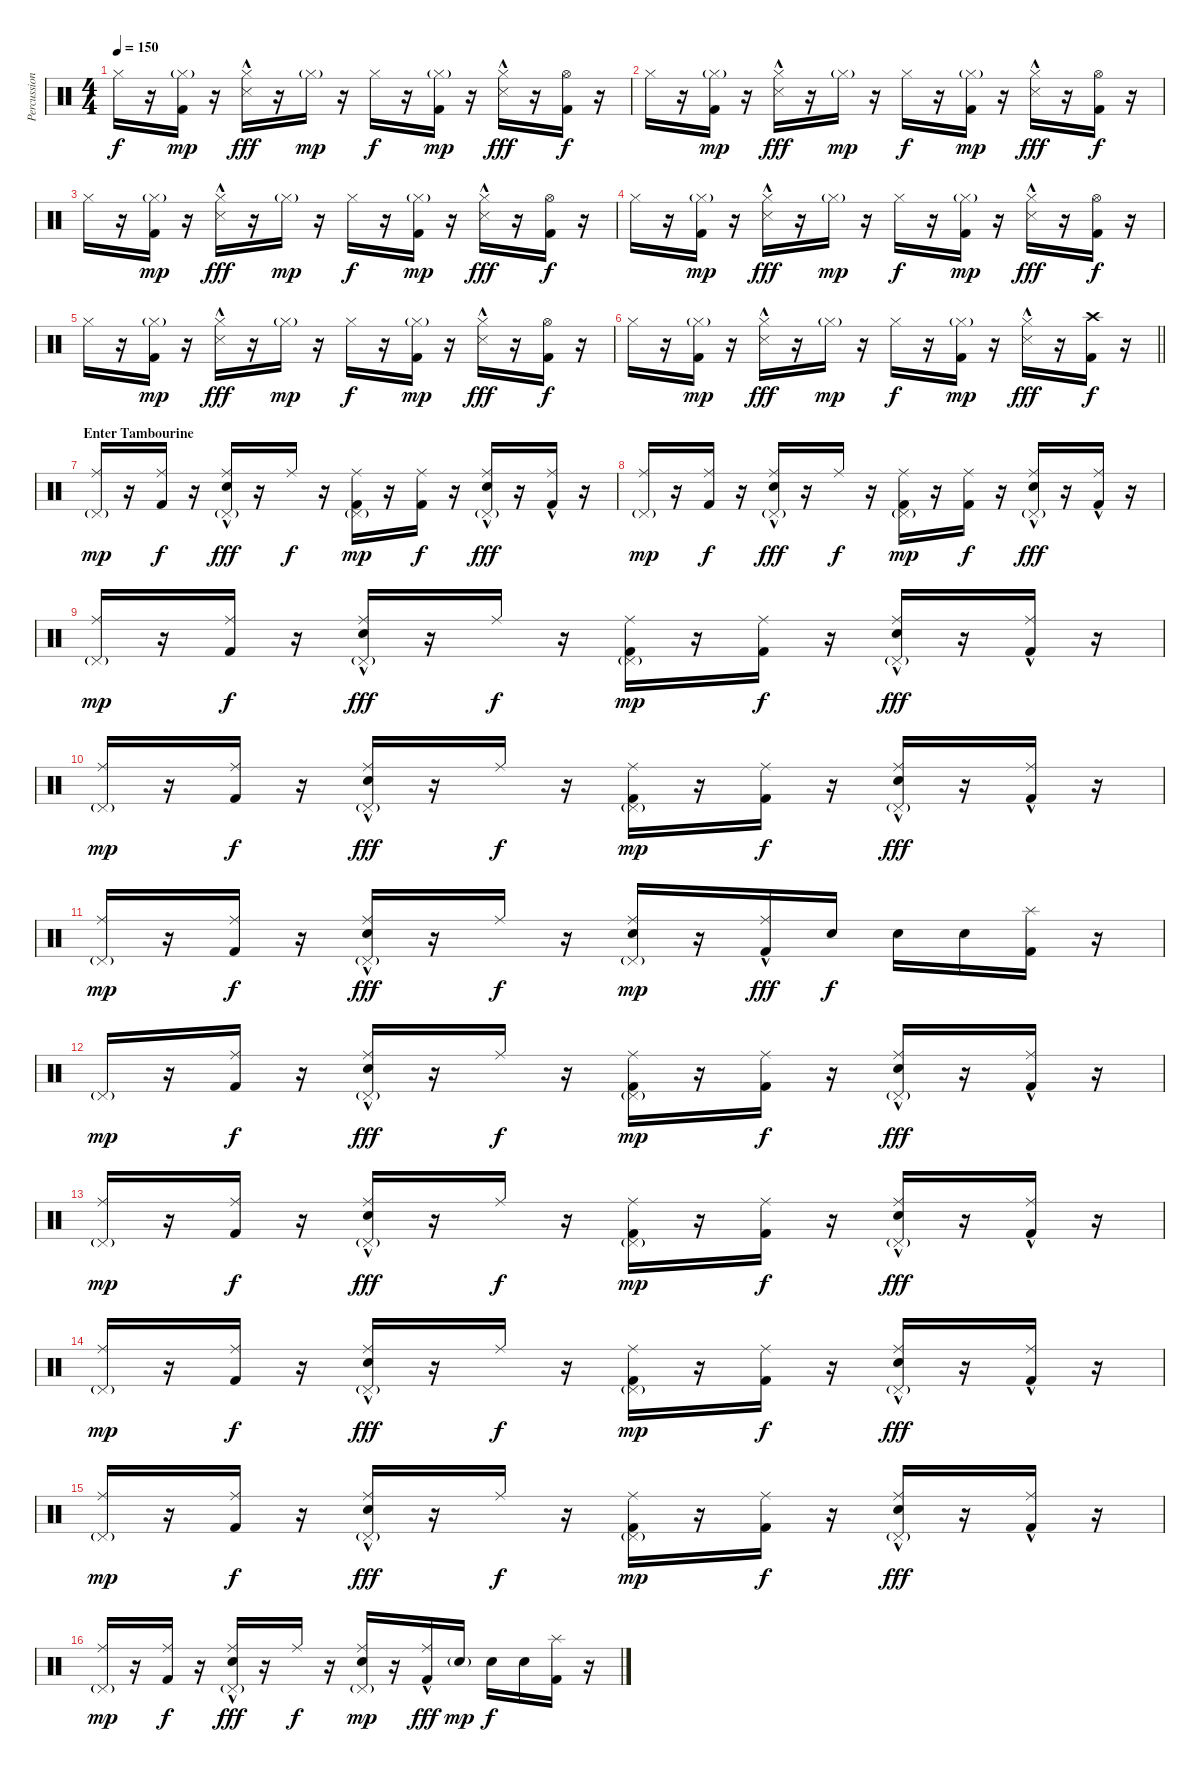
\track ("Percussion" "Percussion") {instrument percussion}
\staff {score}
\articulation defaults
\ts (4 4)
\tempo 150
\clef neutral
\ks c "Hi-Hat (closed)".16{dy f}
r.16 ("Hi-Hat (closed)"{g} "Kick (hit) 2").16{dy mp} r.16 ("Hi-Hat (closed)" "Snare (side stick) 3"{hac}).16{dy fff} r.16 "Hi-Hat (closed)"{g}.16{dy mp} r.16 "Hi-Hat (closed)".16{dy f} r.16 ("Hi-Hat (closed)"{g} "Kick (hit) 2").16{dy mp} r.16 ("Hi-Hat (closed)" "Snare (side stick) 3"{hac}).16{dy fff} r.16 ("Hi-Hat (open)" "Kick (hit) 2").16{dy f} r.16 |
"Hi-Hat (closed)".16 r.16 ("Hi-Hat (closed)"{g} "Kick (hit) 2").16{dy mp} r.16 ("Hi-Hat (closed)" "Snare (side stick) 3"{hac}).16{dy fff} r.16 "Hi-Hat (closed)"{g}.16{dy mp} r.16 "Hi-Hat (closed)".16{dy f} r.16 ("Hi-Hat (closed)"{g} "Kick (hit) 2").16{dy mp} r.16 ("Hi-Hat (closed)" "Snare (side stick) 3"{hac}).16{dy fff} r.16 ("Hi-Hat (open)" "Kick (hit) 2").16{dy f} r.16 |
"Hi-Hat (closed)".16 r.16 ("Hi-Hat (closed)"{g} "Kick (hit) 2").16{dy mp} r.16 ("Hi-Hat (closed)" "Snare (side stick) 3"{hac}).16{dy fff} r.16 "Hi-Hat (closed)"{g}.16{dy mp} r.16 "Hi-Hat (closed)".16{dy f} r.16 ("Hi-Hat (closed)"{g} "Kick (hit) 2").16{dy mp} r.16 ("Hi-Hat (closed)" "Snare (side stick) 3"{hac}).16{dy fff} r.16 ("Hi-Hat (open)" "Kick (hit) 2").16{dy f} r.16 |
"Hi-Hat (closed)".16 r.16 ("Hi-Hat (closed)"{g} "Kick (hit) 2").16{dy mp} r.16 ("Hi-Hat (closed)" "Snare (side stick) 3"{hac}).16{dy fff} r.16 "Hi-Hat (closed)"{g}.16{dy mp} r.16 "Hi-Hat (closed)".16{dy f} r.16 ("Hi-Hat (closed)"{g} "Kick (hit) 2").16{dy mp} r.16 ("Hi-Hat (closed)" "Snare (side stick) 3"{hac}).16{dy fff} r.16 ("Hi-Hat (open)" "Kick (hit) 2").16{dy f} r.16 |
"Hi-Hat (closed)".16 r.16 ("Hi-Hat (closed)"{g} "Kick (hit) 2").16{dy mp} r.16 ("Hi-Hat (closed)" "Snare (side stick) 3"{hac}).16{dy fff} r.16 "Hi-Hat (closed)"{g}.16{dy mp} r.16 "Hi-Hat (closed)".16{dy f} r.16 ("Hi-Hat (closed)"{g} "Kick (hit) 2").16{dy mp} r.16 ("Hi-Hat (closed)" "Snare (side stick) 3"{hac}).16{dy fff} r.16 ("Hi-Hat (open)" "Kick (hit) 2").16{dy f} r.16 |
\barLineRight lightlight "Hi-Hat (closed)".16
r.16 ("Hi-Hat (closed)"{g} "Kick (hit) 2").16{dy mp} r.16 ("Hi-Hat (closed)" "Snare (side stick) 3"{hac}).16{dy fff} r.16 "Hi-Hat (closed)"{g}.16{dy mp} r.16 "Hi-Hat (closed)".16{dy f} r.16 ("Hi-Hat (closed)"{g} "Kick (hit) 2").16{dy mp} r.16 ("Hi-Hat (closed)" "Snare (side stick) 3"{hac}).16{dy fff} r.16 ("Crash high (hit)" "Kick (hit) 2").16{dy f} r.16 |
\section ("" "Enter Tambourine")
("Pedal Hi-Hat (hit)"{g} "Ride (middle)").16{dy mp} r.16 ("Ride (middle)" "Kick (hit) 2").16{dy f} r.16 ("Pedal Hi-Hat (hit)"{g} "Ride (middle)" "Snare (hit) 2"{hac}).16{dy fff} r.16 "Ride (middle)".16{dy f} r.16 ("Pedal Hi-Hat (hit)"{g} "Ride (middle)" "Kick (hit) 2").16{dy mp} r.16 ("Ride (middle)" "Kick (hit) 2").16{dy f} r.16 ("Pedal Hi-Hat (hit)"{g} "Ride (middle)" "Snare (hit) 2"{hac}).16{dy fff} r.16 ("Ride (middle)"{hac} "Kick (hit) 2").16 r.16 |
("Pedal Hi-Hat (hit)"{g} "Ride (middle)").16{dy mp} r.16 ("Ride (middle)" "Kick (hit) 2").16{dy f} r.16 ("Pedal Hi-Hat (hit)"{g} "Ride (middle)" "Snare (hit) 2"{hac}).16{dy fff} r.16 "Ride (middle)".16{dy f} r.16 ("Pedal Hi-Hat (hit)"{g} "Ride (middle)" "Kick (hit) 2").16{dy mp} r.16 ("Ride (middle)" "Kick (hit) 2").16{dy f} r.16 ("Pedal Hi-Hat (hit)"{g} "Ride (middle)" "Snare (hit) 2"{hac}).16{dy fff} r.16 ("Ride (middle)"{hac} "Kick (hit) 2").16 r.16 |
("Pedal Hi-Hat (hit)"{g} "Ride (middle)").16{dy mp} r.16 ("Ride (middle)" "Kick (hit) 2").16{dy f} r.16 ("Pedal Hi-Hat (hit)"{g} "Ride (middle)" "Snare (hit) 2"{hac}).16{dy fff} r.16 "Ride (middle)".16{dy f} r.16 ("Pedal Hi-Hat (hit)"{g} "Ride (middle)" "Kick (hit) 2").16{dy mp} r.16 ("Ride (middle)" "Kick (hit) 2").16{dy f} r.16 ("Pedal Hi-Hat (hit)"{g} "Ride (middle)" "Snare (hit) 2"{hac}).16{dy fff} r.16 ("Ride (middle)"{hac} "Kick (hit) 2").16 r.16 |
("Pedal Hi-Hat (hit)"{g} "Ride (middle)").16{dy mp} r.16 ("Ride (middle)" "Kick (hit) 2").16{dy f} r.16 ("Pedal Hi-Hat (hit)"{g} "Ride (middle)" "Snare (hit) 2"{hac}).16{dy fff} r.16 "Ride (middle)".16{dy f} r.16 ("Pedal Hi-Hat (hit)"{g} "Ride (middle)" "Kick (hit) 2").16{dy mp} r.16 ("Ride (middle)" "Kick (hit) 2").16{dy f} r.16 ("Pedal Hi-Hat (hit)"{g} "Ride (middle)" "Snare (hit) 2"{hac}).16{dy fff} r.16 ("Ride (middle)"{hac} "Kick (hit) 2").16 r.16 |
("Pedal Hi-Hat (hit)"{g} "Ride (middle)").16{dy mp} r.16 ("Ride (middle)" "Kick (hit) 2").16{dy f} r.16 ("Pedal Hi-Hat (hit)"{g} "Ride (middle)" "Snare (hit) 2"{hac}).16{dy fff} r.16 "Ride (middle)".16{dy f} r.16 ("Pedal Hi-Hat (hit)"{g} "Ride (middle)" "Snare (hit) 2").16{dy mp} r.16 ("Ride (middle)"{hac} "Kick (hit) 2").16{dy fff} "Snare (hit) 2".16{dy f} "Snare (hit) 2".16 "Snare (hit) 2".16 ("Splash (hit)" "Kick (hit) 2").16 r.16 |
"Pedal Hi-Hat (hit)"{g}.16{dy mp} r.16 ("Ride (middle)" "Kick (hit) 2").16{dy f} r.16 ("Pedal Hi-Hat (hit)"{g} "Ride (middle)" "Snare (hit) 2"{hac}).16{dy fff} r.16 "Ride (middle)".16{dy f} r.16 ("Pedal Hi-Hat (hit)"{g} "Ride (middle)" "Kick (hit) 2").16{dy mp} r.16 ("Ride (middle)" "Kick (hit) 2").16{dy f} r.16 ("Pedal Hi-Hat (hit)"{g} "Ride (middle)" "Snare (hit) 2"{hac}).16{dy fff} r.16 ("Ride (middle)"{hac} "Kick (hit) 2").16 r.16 |
("Pedal Hi-Hat (hit)"{g} "Ride (middle)").16{dy mp} r.16 ("Ride (middle)" "Kick (hit) 2").16{dy f} r.16 ("Pedal Hi-Hat (hit)"{g} "Ride (middle)" "Snare (hit) 2"{hac}).16{dy fff} r.16 "Ride (middle)".16{dy f} r.16 ("Pedal Hi-Hat (hit)"{g} "Ride (middle)" "Kick (hit) 2").16{dy mp} r.16 ("Ride (middle)" "Kick (hit) 2").16{dy f} r.16 ("Pedal Hi-Hat (hit)"{g} "Ride (middle)" "Snare (hit) 2"{hac}).16{dy fff} r.16 ("Ride (middle)"{hac} "Kick (hit) 2").16 r.16 |
("Pedal Hi-Hat (hit)"{g} "Ride (middle)").16{dy mp} r.16 ("Ride (middle)" "Kick (hit) 2").16{dy f} r.16 ("Pedal Hi-Hat (hit)"{g} "Ride (middle)" "Snare (hit) 2"{hac}).16{dy fff} r.16 "Ride (middle)".16{dy f} r.16 ("Pedal Hi-Hat (hit)"{g} "Ride (middle)" "Kick (hit) 2").16{dy mp} r.16 ("Ride (middle)" "Kick (hit) 2").16{dy f} r.16 ("Pedal Hi-Hat (hit)"{g} "Ride (middle)" "Snare (hit) 2"{hac}).16{dy fff} r.16 ("Ride (middle)"{hac} "Kick (hit) 2").16 r.16 |
("Pedal Hi-Hat (hit)"{g} "Ride (middle)").16{dy mp} r.16 ("Ride (middle)" "Kick (hit) 2").16{dy f} r.16 ("Pedal Hi-Hat (hit)"{g} "Ride (middle)" "Snare (hit) 2"{hac}).16{dy fff} r.16 "Ride (middle)".16{dy f} r.16 ("Pedal Hi-Hat (hit)"{g} "Ride (middle)" "Kick (hit) 2").16{dy mp} r.16 ("Ride (middle)" "Kick (hit) 2").16{dy f} r.16 ("Pedal Hi-Hat (hit)"{g} "Ride (middle)" "Snare (hit) 2"{hac}).16{dy fff} r.16 ("Ride (middle)"{hac} "Kick (hit) 2").16 r.16 |
("Pedal Hi-Hat (hit)"{g} "Ride (middle)").16{dy mp} r.16 ("Ride (middle)" "Kick (hit) 2").16{dy f} r.16 ("Pedal Hi-Hat (hit)"{g} "Ride (middle)" "Snare (hit) 2"{hac}).16{dy fff} r.16 "Ride (middle)".16{dy f} r.16 ("Pedal Hi-Hat (hit)"{g} "Ride (middle)" "Snare (hit) 2").16{dy mp} r.16 ("Ride (middle)"{hac} "Kick (hit) 2").16{dy fff} "Snare (hit) 2"{g}.16{dy mp} "Snare (hit) 2".16{dy f} "Snare (hit) 2".16 ("Splash (hit)" "Kick (hit) 2").16 r.16
